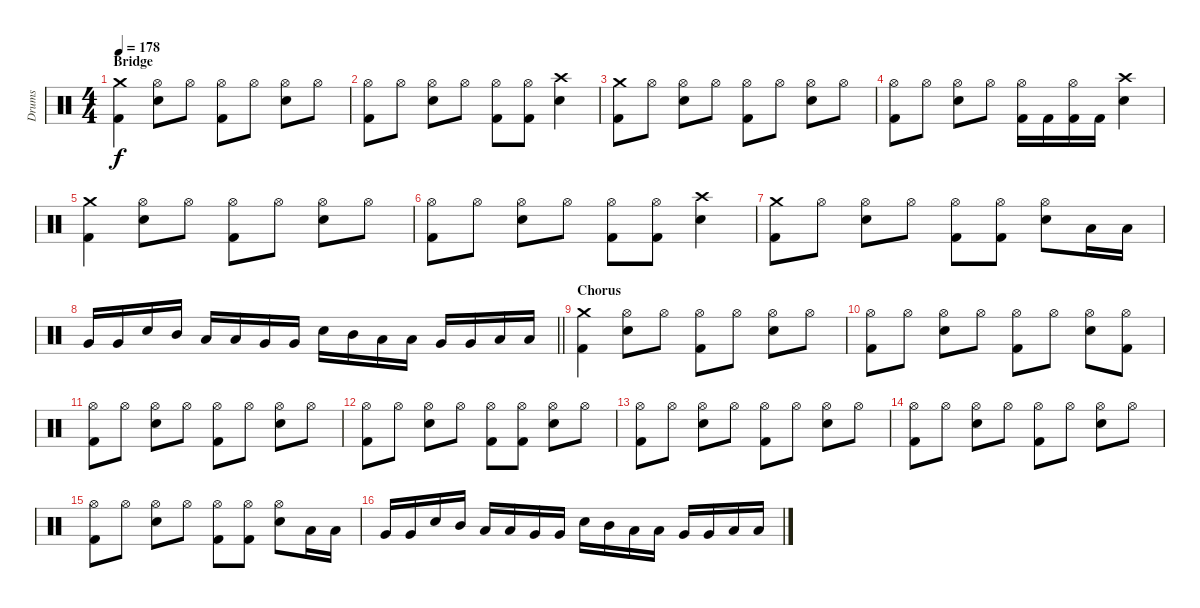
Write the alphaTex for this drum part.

\track ("Drums" "Drums") {instrument percussion}
\staff {score}
\articulation defaults
\ts (4 4)
\section ("" "Bridge")
\tempo 178
\clef neutral
\ks c
("Crash medium (hit)" "Kick (hit) 2").4{dy f} ("Hi-Hat (open)" "Electric Snare (hit)").8 "Hi-Hat (open)".8 ("Hi-Hat (open)" "Kick (hit) 2").8 "Hi-Hat (open)".8 ("Hi-Hat (open)" "Electric Snare (hit)").8 "Hi-Hat (open)".8 |
("Hi-Hat (open)" "Kick (hit) 2").8 "Hi-Hat (open)".8 ("Hi-Hat (open)" "Electric Snare (hit)").8 "Hi-Hat (open)".8 ("Hi-Hat (open)" "Kick (hit) 2").8 ("Hi-Hat (open)" "Kick (hit) 2").8 ("Crash high (hit)" "Electric Snare (hit)").4 |
("Crash medium (hit)" "Kick (hit) 2").8 "Hi-Hat (open)".8 ("Hi-Hat (open)" "Electric Snare (hit)").8 "Hi-Hat (open)".8 ("Hi-Hat (open)" "Kick (hit) 2").8 "Hi-Hat (open)".8 ("Hi-Hat (open)" "Electric Snare (hit)").8 "Hi-Hat (open)".8 |
("Hi-Hat (open)" "Kick (hit) 2").8 "Hi-Hat (open)".8 ("Hi-Hat (open)" "Electric Snare (hit)").8 "Hi-Hat (open)".8 ("Hi-Hat (open)" "Kick (hit) 2").16 "Kick (hit) 2".16 ("Hi-Hat (open)" "Kick (hit) 2").16 "Kick (hit) 2".16 ("Crash high (hit)" "Electric Snare (hit)").4 |
("Crash medium (hit)" "Kick (hit) 2").4 ("Hi-Hat (open)" "Electric Snare (hit)").8 "Hi-Hat (open)".8 ("Hi-Hat (open)" "Kick (hit) 2").8 "Hi-Hat (open)".8 ("Hi-Hat (open)" "Electric Snare (hit)").8 "Hi-Hat (open)".8 |
("Hi-Hat (open)" "Kick (hit) 2").8 "Hi-Hat (open)".8 ("Hi-Hat (open)" "Electric Snare (hit)").8 "Hi-Hat (open)".8 ("Hi-Hat (open)" "Kick (hit) 2").8 ("Hi-Hat (open)" "Kick (hit) 2").8 ("Crash high (hit)" "Electric Snare (hit)").4 |
("Crash medium (hit)" "Kick (hit) 2").8 "Hi-Hat (open)".8 ("Hi-Hat (open)" "Electric Snare (hit)").8 "Hi-Hat (open)".8 ("Hi-Hat (open)" "Kick (hit) 2").8 ("Hi-Hat (open)" "Kick (hit) 2").8 ("Hi-Hat (open)" "Electric Snare (hit)").8 "Low Tom (hit)".16 "Low Tom (hit)".16 |
\barLineRight lightlight "Very Low Tom (hit)".16 "Very Low Tom (hit)".16 "Electric Snare (hit)".16 "Mid Tom (hit)".16 "Low Tom (hit)".16 "Low Tom (hit)".16 "Very Low Tom (hit)".16 "Very Low Tom (hit)".16 "Electric Snare (hit)".16 "Mid Tom (hit)".16 "Low Tom (hit)".16 "Low Tom (hit)".16 "Very Low Tom (hit)".16 "Very Low Tom (hit)".16 "Low Floor Tom (hit)".16 "Low Floor Tom (hit)".16
|
\section ("" "Chorus")
("Crash medium (hit)" "Kick (hit) 2").4 ("Hi-Hat (open)" "Electric Snare (hit)").8 "Hi-Hat (open)".8 ("Hi-Hat (open)" "Kick (hit) 2").8 "Hi-Hat (open)".8 ("Hi-Hat (open)" "Electric Snare (hit)").8 "Hi-Hat (open)".8 |
("Hi-Hat (open)" "Kick (hit) 2").8 "Hi-Hat (open)".8 ("Hi-Hat (open)" "Electric Snare (hit)").8 "Hi-Hat (open)".8 ("Hi-Hat (open)" "Kick (hit) 2").8 "Hi-Hat (open)".8 ("Hi-Hat (open)" "Electric Snare (hit)").8 ("Hi-Hat (open)" "Kick (hit) 2").8 |
("Hi-Hat (open)" "Kick (hit) 2").8 "Hi-Hat (open)".8 ("Hi-Hat (open)" "Electric Snare (hit)").8 "Hi-Hat (open)".8 ("Hi-Hat (open)" "Kick (hit) 2").8 "Hi-Hat (open)".8 ("Hi-Hat (open)" "Electric Snare (hit)").8 "Hi-Hat (open)".8 |
("Hi-Hat (open)" "Kick (hit) 2").8 "Hi-Hat (open)".8 ("Hi-Hat (open)" "Electric Snare (hit)").8 "Hi-Hat (open)".8 ("Hi-Hat (open)" "Kick (hit) 2").8 ("Hi-Hat (open)" "Kick (hit) 2").8 ("Hi-Hat (open)" "Electric Snare (hit)").8 "Hi-Hat (open)".8 |
("Hi-Hat (open)" "Kick (hit) 2").8 "Hi-Hat (open)".8 ("Hi-Hat (open)" "Electric Snare (hit)").8 "Hi-Hat (open)".8 ("Hi-Hat (open)" "Kick (hit) 2").8 "Hi-Hat (open)".8 ("Hi-Hat (open)" "Electric Snare (hit)").8 "Hi-Hat (open)".8 |
("Hi-Hat (open)" "Kick (hit) 2").8 "Hi-Hat (open)".8 ("Hi-Hat (open)" "Electric Snare (hit)").8 "Hi-Hat (open)".8 ("Hi-Hat (open)" "Kick (hit) 2").8 "Hi-Hat (open)".8 ("Hi-Hat (open)" "Electric Snare (hit)").8 "Hi-Hat (open)".8 |
("Hi-Hat (open)" "Kick (hit) 2").8 "Hi-Hat (open)".8 ("Hi-Hat (open)" "Electric Snare (hit)").8 "Hi-Hat (open)".8 ("Hi-Hat (open)" "Kick (hit) 2").8 ("Hi-Hat (open)" "Kick (hit) 2").8 ("Hi-Hat (open)" "Electric Snare (hit)").8 "Low Tom (hit)".16 "Low Tom (hit)".16 |
"Very Low Tom (hit)".16 "Very Low Tom (hit)".16 "Electric Snare (hit)".16 "Mid Tom (hit)".16 "Low Tom (hit)".16 "Low Tom (hit)".16 "Very Low Tom (hit)".16 "Very Low Tom (hit)".16 "Electric Snare (hit)".16 "Mid Tom (hit)".16 "Low Tom (hit)".16 "Low Tom (hit)".16 "Very Low Tom (hit)".16 "Very Low Tom (hit)".16 "Low Floor Tom (hit)".16 "Low Floor Tom (hit)".16
